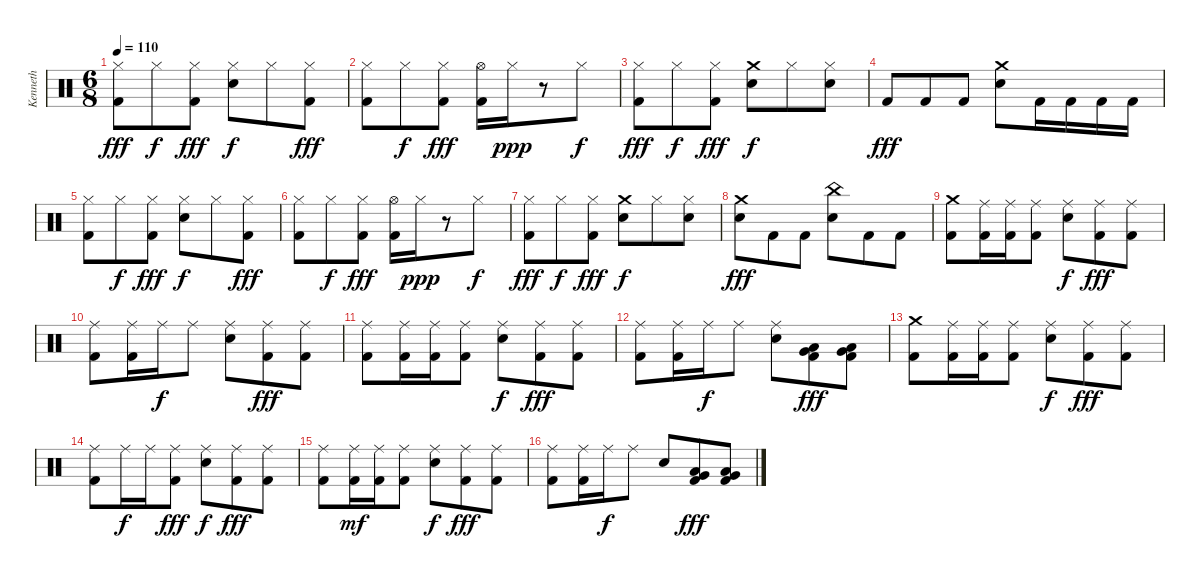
\track ("Kenneth " "Kenneth ") {instrument percussion}
\staff {score}
\articulation defaults
\ts (6 8)
\tempo 110
\clef neutral
\ks c
("Hi-Hat (closed)" "Kick (hit) 2").8{dy fff} "Hi-Hat (closed)".8{dy f} ("Hi-Hat (closed)" "Kick (hit) 2").8{dy fff} ("Hi-Hat (closed)" "Electric Snare (hit)").8{dy f} "Hi-Hat (closed)".8 ("Hi-Hat (closed)" "Kick (hit) 2").8{dy fff} |
("Hi-Hat (closed)" "Kick (hit) 2").8 "Hi-Hat (closed)".8{dy f} ("Hi-Hat (closed)" "Kick (hit) 2").8{dy fff} ("Hi-Hat (open)" "Kick (hit) 2").16 "Hi-Hat (closed)".16{dy ppp} r.8 "Hi-Hat (closed)".8{dy f} |
("Hi-Hat (closed)" "Kick (hit) 2").8{dy fff} "Hi-Hat (closed)".8{dy f} ("Hi-Hat (closed)" "Kick (hit) 2").8{dy fff} ("Crash medium (hit)" "Electric Snare (hit)").8{dy f} "Hi-Hat (closed)".8 ("Hi-Hat (closed)" "Electric Snare (hit)").8 |
"Kick (hit) 2".8{dy fff} "Kick (hit) 2".8 "Kick (hit) 2".8 ("Crash medium (hit)" "Electric Snare (hit)").8 "Kick (hit) 2".16 "Kick (hit) 2".16 "Kick (hit) 2".16 "Kick (hit) 2".16 |
("Hi-Hat (closed)" "Kick (hit) 2").8 "Hi-Hat (closed)".8{dy f} ("Hi-Hat (closed)" "Kick (hit) 2").8{dy fff} ("Hi-Hat (closed)" "Electric Snare (hit)").8{dy f} "Hi-Hat (closed)".8 ("Hi-Hat (closed)" "Kick (hit) 2").8{dy fff} |
("Hi-Hat (closed)" "Kick (hit) 2").8 "Hi-Hat (closed)".8{dy f} ("Hi-Hat (closed)" "Kick (hit) 2").8{dy fff} ("Hi-Hat (open)" "Kick (hit) 2").16 "Hi-Hat (closed)".16{dy ppp} r.8 "Hi-Hat (closed)".8{dy f} |
("Hi-Hat (closed)" "Kick (hit) 2").8{dy fff} "Hi-Hat (closed)".8{dy f} ("Hi-Hat (closed)" "Kick (hit) 2").8{dy fff} ("Crash medium (hit)" "Electric Snare (hit)").8{dy f} "Hi-Hat (closed)".8 ("Hi-Hat (closed)" "Electric Snare (hit)").8 |
("Crash medium (hit)" "Electric Snare (hit)").8{dy fff} "Kick (hit) 2".8 "Kick (hit) 2".8 ("China (hit)" "Electric Snare (hit)").8 "Kick (hit) 2".8 "Kick (hit) 2".8 |
("Crash medium (hit)" "Kick (hit) 2").8 ("Ride (middle)" "Kick (hit) 2").16 ("Ride (middle)" "Kick (hit) 2").16 ("Ride (middle)" "Kick (hit) 2").8 ("Ride (middle)" "Electric Snare (hit)").8{dy f} ("Ride (middle)" "Kick (hit) 2").8{dy fff} ("Ride (middle)" "Kick (hit) 2").8 |
("Ride (middle)" "Kick (hit) 2").8 ("Ride (middle)" "Kick (hit) 2").16 "Ride (middle)".16{dy f} "Ride (middle)".8 ("Ride (middle)" "Electric Snare (hit)").8 ("Ride (middle)" "Kick (hit) 2").8{dy fff} ("Ride (middle)" "Kick (hit) 2").8 |
("Ride (middle)" "Kick (hit) 2").8 ("Ride (middle)" "Kick (hit) 2").16 ("Ride (middle)" "Kick (hit) 2").16 ("Ride (middle)" "Kick (hit) 2").8 ("Ride (middle)" "Electric Snare (hit)").8{dy f} ("Ride (middle)" "Kick (hit) 2").8{dy fff} ("Ride (middle)" "Kick (hit) 2").8 |
("Ride (middle)" "Kick (hit) 2").8 ("Ride (middle)" "Kick (hit) 2").16 "Ride (middle)".16{dy f} "Ride (middle)".8 ("Ride (middle)" "Electric Snare (hit)").8 ("Very Low Tom (hit)" "Low Tom (hit)" "Kick (hit) 2").8{dy fff} ("Very Low Tom (hit)" "Low Tom (hit)" "Kick (hit) 2").8 |
("Crash medium (hit)" "Kick (hit) 2").8 ("Ride (middle)" "Kick (hit) 2").16 ("Ride (middle)" "Kick (hit) 2").16 ("Ride (middle)" "Kick (hit) 2").8 ("Ride (middle)" "Electric Snare (hit)").8{dy f} ("Ride (middle)" "Kick (hit) 2").8{dy fff} ("Ride (middle)" "Kick (hit) 2").8 |
("Ride (middle)" "Kick (hit) 2").8 "Ride (middle)".16{dy f} "Ride (middle)".16 ("Ride (middle)" "Kick (hit) 2").8{dy fff} ("Ride (middle)" "Electric Snare (hit)").8{dy f} ("Ride (middle)" "Kick (hit) 2").8{dy fff} ("Ride (middle)" "Kick (hit) 2").8 |
("Ride (middle)" "Kick (hit) 2").8 ("Ride (middle)" "Kick (hit) 2").16{dy mf} ("Ride (middle)" "Kick (hit) 2").16 ("Ride (middle)" "Kick (hit) 2").8 ("Ride (middle)" "Electric Snare (hit)").8{dy f} ("Ride (middle)" "Kick (hit) 2").8{dy fff} ("Ride (middle)" "Kick (hit) 2").8 |
("Ride (middle)" "Kick (hit) 2").8 ("Ride (middle)" "Kick (hit) 2").16 "Ride (middle)".16{dy f} "Ride (middle)".8 "Electric Snare (hit)".8 ("Very Low Tom (hit)" "Low Tom (hit)" "Kick (hit) 2").8{dy fff} ("Very Low Tom (hit)" "Low Tom (hit)" "Kick (hit) 2").8
